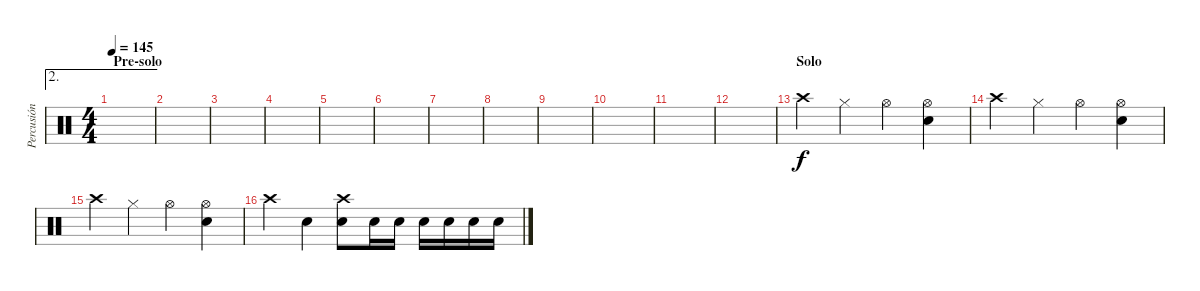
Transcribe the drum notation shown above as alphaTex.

\track ("Percusión" "Percusión") {instrument percussion}
\staff {score}
\articulation defaults
\ae 2
\ts (4 4)
\section ("" "Pre-solo")
\tempo 145
\clef neutral
\ks c
|
|
|
|
|
|
|
|
|
|
|
|
\section ("" "Solo")
"Crash high (hit)".4 "Hi-Hat (closed)".4 "Hi-Hat (open)".4 ("Hi-Hat (open)" "Snare (hit) 2").4 |
"Crash high (hit)".4 "Hi-Hat (closed)".4 "Hi-Hat (open)".4 ("Hi-Hat (open)" "Snare (hit) 2").4 |
"Crash high (hit)".4 "Hi-Hat (closed)".4 "Hi-Hat (open)".4 ("Hi-Hat (open)" "Snare (hit) 2").4 |
"Crash high (hit)".4 "Snare (hit) 2".4 ("Crash high (hit)" "Snare (hit) 2").8 "Snare (hit) 2".16 "Snare (hit) 2".16 "Snare (hit) 2".16 "Snare (hit) 2".16 "Snare (hit) 2".16 "Snare (hit) 2".16
